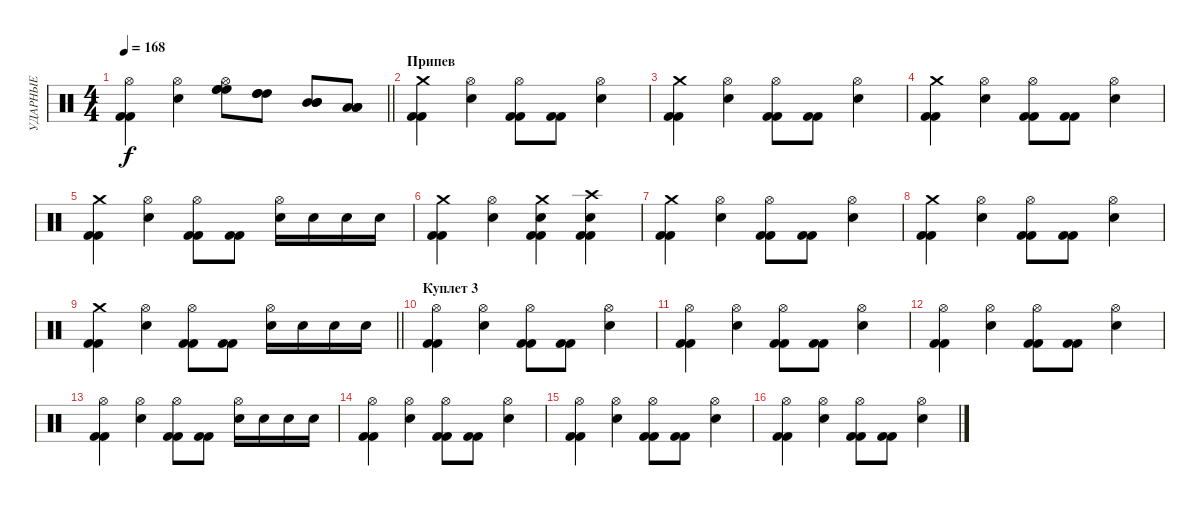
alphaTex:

\track ("УДАРНЫЕ" "УДАРНЫЕ") {instrument percussion}
\staff {score}
\articulation defaults
\ts (4 4)
\tempo 168
\clef neutral
\barLineRight lightlight
\ks c
("Hi-Hat (open)" "Kick (hit) 2" "Kick (hit) 2").4{dy f} ("Hi-Hat (open)" "Snare (hit) 2").4 ("Hi-Hat (open)" "High Floor Tom (hit)" "High Floor Tom (hit)" "High Floor Tom (hit)").8 ("High Tom (hit)" "High Tom (hit)" "High Tom (hit)").8 ("Mid Tom (hit)" "Mid Tom (hit)" "Mid Tom (hit)").8 ("Low Tom (hit)" "Low Tom (hit)" "Low Tom (hit)").8 |
\section ("" "Припев")
("Crash medium (hit)" "Kick (hit) 2" "Kick (hit) 2").4 ("Hi-Hat (open)" "Snare (hit) 2").4 ("Hi-Hat (open)" "Kick (hit) 2" "Kick (hit) 2").8 ("Kick (hit) 2" "Kick (hit) 2").8 ("Hi-Hat (open)" "Snare (hit) 2").4 |
("Crash medium (hit)" "Kick (hit) 2" "Kick (hit) 2").4 ("Hi-Hat (open)" "Snare (hit) 2").4 ("Hi-Hat (open)" "Kick (hit) 2" "Kick (hit) 2").8 ("Kick (hit) 2" "Kick (hit) 2").8 ("Hi-Hat (open)" "Snare (hit) 2").4 |
("Crash medium (hit)" "Kick (hit) 2" "Kick (hit) 2").4 ("Hi-Hat (open)" "Snare (hit) 2").4 ("Hi-Hat (open)" "Kick (hit) 2" "Kick (hit) 2").8 ("Kick (hit) 2" "Kick (hit) 2").8 ("Hi-Hat (open)" "Snare (hit) 2").4 |
("Crash medium (hit)" "Kick (hit) 2" "Kick (hit) 2").4 ("Hi-Hat (open)" "Snare (hit) 2").4 ("Hi-Hat (open)" "Kick (hit) 2" "Kick (hit) 2").8 ("Kick (hit) 2" "Kick (hit) 2").8 ("Hi-Hat (open)" "Snare (hit) 2").16 "Snare (hit) 2".16 "Snare (hit) 2".16 "Snare (hit) 2".16 |
("Crash medium (hit)" "Kick (hit) 2" "Kick (hit) 2").4 ("Hi-Hat (open)" "Snare (hit) 2").4 ("Crash medium (hit)" "Snare (hit) 2" "Kick (hit) 2" "Kick (hit) 2").4 ("Crash high (hit)" "Snare (hit) 2" "Kick (hit) 2" "Kick (hit) 2").4 |
("Crash medium (hit)" "Kick (hit) 2" "Kick (hit) 2").4 ("Hi-Hat (open)" "Snare (hit) 2").4 ("Hi-Hat (open)" "Kick (hit) 2" "Kick (hit) 2").8 ("Kick (hit) 2" "Kick (hit) 2").8 ("Hi-Hat (open)" "Snare (hit) 2").4 |
("Crash medium (hit)" "Kick (hit) 2" "Kick (hit) 2").4 ("Hi-Hat (open)" "Snare (hit) 2").4 ("Hi-Hat (open)" "Kick (hit) 2" "Kick (hit) 2").8 ("Kick (hit) 2" "Kick (hit) 2").8 ("Hi-Hat (open)" "Snare (hit) 2").4 |
\barLineRight lightlight
("Crash medium (hit)" "Kick (hit) 2" "Kick (hit) 2").4 ("Hi-Hat (open)" "Snare (hit) 2").4 ("Hi-Hat (open)" "Kick (hit) 2" "Kick (hit) 2").8 ("Kick (hit) 2" "Kick (hit) 2").8 ("Hi-Hat (open)" "Snare (hit) 2").16 "Snare (hit) 2".16 "Snare (hit) 2".16 "Snare (hit) 2".16 |
\section ("" "Куплет 3")
("Hi-Hat (open)" "Kick (hit) 2" "Kick (hit) 2").4 ("Hi-Hat (open)" "Snare (hit) 2").4 ("Hi-Hat (open)" "Kick (hit) 2" "Kick (hit) 2").8 ("Kick (hit) 2" "Kick (hit) 2").8 ("Hi-Hat (open)" "Snare (hit) 2").4 |
("Hi-Hat (open)" "Kick (hit) 2" "Kick (hit) 2").4 ("Hi-Hat (open)" "Snare (hit) 2").4 ("Hi-Hat (open)" "Kick (hit) 2" "Kick (hit) 2").8 ("Kick (hit) 2" "Kick (hit) 2").8 ("Hi-Hat (open)" "Snare (hit) 2").4 |
("Hi-Hat (open)" "Kick (hit) 2" "Kick (hit) 2").4 ("Hi-Hat (open)" "Snare (hit) 2").4 ("Hi-Hat (open)" "Kick (hit) 2" "Kick (hit) 2").8 ("Kick (hit) 2" "Kick (hit) 2").8 ("Hi-Hat (open)" "Snare (hit) 2").4 |
("Hi-Hat (open)" "Kick (hit) 2" "Kick (hit) 2").4 ("Hi-Hat (open)" "Snare (hit) 2").4 ("Hi-Hat (open)" "Kick (hit) 2" "Kick (hit) 2").8 ("Kick (hit) 2" "Kick (hit) 2").8 ("Hi-Hat (open)" "Snare (hit) 2").16 "Snare (hit) 2".16 "Snare (hit) 2".16 "Snare (hit) 2".16 |
("Hi-Hat (open)" "Kick (hit) 2" "Kick (hit) 2").4 ("Hi-Hat (open)" "Snare (hit) 2").4 ("Hi-Hat (open)" "Kick (hit) 2" "Kick (hit) 2").8 ("Kick (hit) 2" "Kick (hit) 2").8 ("Hi-Hat (open)" "Snare (hit) 2").4 |
("Hi-Hat (open)" "Kick (hit) 2" "Kick (hit) 2").4 ("Hi-Hat (open)" "Snare (hit) 2").4 ("Hi-Hat (open)" "Kick (hit) 2" "Kick (hit) 2").8 ("Kick (hit) 2" "Kick (hit) 2").8 ("Hi-Hat (open)" "Snare (hit) 2").4 |
("Hi-Hat (open)" "Kick (hit) 2" "Kick (hit) 2").4 ("Hi-Hat (open)" "Snare (hit) 2").4 ("Hi-Hat (open)" "Kick (hit) 2" "Kick (hit) 2").8 ("Kick (hit) 2" "Kick (hit) 2").8 ("Hi-Hat (open)" "Snare (hit) 2").4
